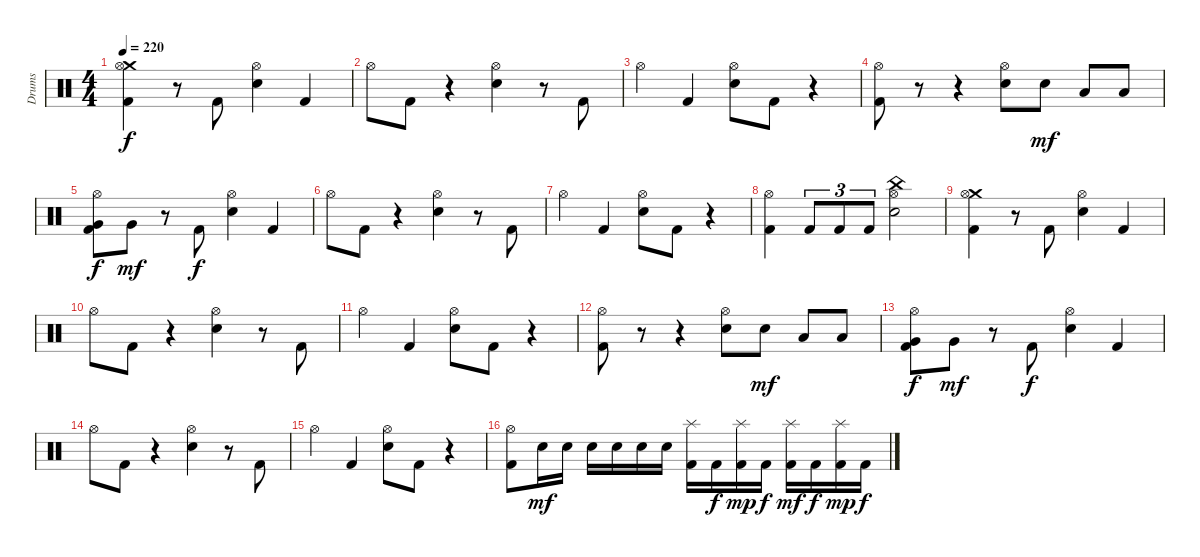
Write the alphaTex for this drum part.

\bracketExtendMode groupsimilarinstruments
\otherSystemsTrackNameOrientation horizontal
\track ("Drumkit" "Drums") {instrument percussion}
\staff {score}
\articulation defaults
\ts (4 4)
\tempo 220
\clef neutral
\ks c
("Crash medium (hit)" "Hi-Hat (open)" "Kick (hit) 2").4{dy f beam Down} r.8{beam Down} "Kick (hit) 2".8{beam Up} ("Hi-Hat (open)" "Snare (hit) 2").4{beam Down} "Kick (hit) 2".4{beam Up} |
"Hi-Hat (open)".8{beam Down} "Kick (hit) 2".8{beam Down} r.4{beam Down} ("Hi-Hat (open)" "Snare (hit) 2").4{beam Down} r.8{beam Down} "Kick (hit) 2".8{beam Up} |
"Hi-Hat (open)".4{beam Down} "Kick (hit) 2".4{beam Up} ("Hi-Hat (open)" "Snare (hit) 2").8{beam Down} "Kick (hit) 2".8{beam Down} r.4{beam Down} |
("Hi-Hat (open)" "Kick (hit) 2").8{beam Down} r.8{beam Down} r.4{beam Down} ("Hi-Hat (open)" "Snare (hit) 2").8{beam Down} "Snare (hit) 2".8{dy mf beam Down} "Low Tom (hit)".8{beam Up} "Low Tom (hit)".8{beam Up} |
("Hi-Hat (open)" "Very Low Tom (hit)" "Kick (hit) 2").8{dy f beam Down} "Very Low Tom (hit)".8{dy mf beam Down} r.8{beam Down} "Kick (hit) 2".8{dy f beam Up} ("Hi-Hat (open)" "Snare (hit) 2").4{beam Down} "Kick (hit) 2".4{beam Up} |
"Hi-Hat (open)".8{beam Down} "Kick (hit) 2".8{beam Down} r.4{beam Down} ("Hi-Hat (open)" "Snare (hit) 2").4{beam Down} r.8{beam Down} "Kick (hit) 2".8{beam Up} |
"Hi-Hat (open)".4{beam Down} "Kick (hit) 2".4{beam Up} ("Hi-Hat (open)" "Snare (hit) 2").8{beam Down} "Kick (hit) 2".8{beam Down} r.4{beam Down} |
("Hi-Hat (open)" "Kick (hit) 2").4{beam Down} "Kick (hit) 2".8{tu (3 2) beam Up} "Kick (hit) 2".8{tu (3 2) beam Up} "Kick (hit) 2".8{tu (3 2) beam Up} ("China (hit)" "Hi-Hat (open)" "Snare (hit) 2").2{beam Down} |
("Crash medium (hit)" "Hi-Hat (open)" "Kick (hit) 2").4{beam Down} r.8{beam Down} "Kick (hit) 2".8{beam Up} ("Hi-Hat (open)" "Snare (hit) 2").4{beam Down} "Kick (hit) 2".4{beam Up} |
"Hi-Hat (open)".8{beam Down} "Kick (hit) 2".8{beam Down} r.4{beam Down} ("Hi-Hat (open)" "Snare (hit) 2").4{beam Down} r.8{beam Down} "Kick (hit) 2".8{beam Up} |
"Hi-Hat (open)".4{beam Down} "Kick (hit) 2".4{beam Up} ("Hi-Hat (open)" "Snare (hit) 2").8{beam Down} "Kick (hit) 2".8{beam Down} r.4{beam Down} |
("Hi-Hat (open)" "Kick (hit) 2").8{beam Down} r.8{beam Down} r.4{beam Down} ("Hi-Hat (open)" "Snare (hit) 2").8{beam Down} "Snare (hit) 2".8{dy mf beam Down} "Low Tom (hit)".8{beam Up} "Low Tom (hit)".8{beam Up} |
("Hi-Hat (open)" "Very Low Tom (hit)" "Kick (hit) 2").8{dy f beam Down} "Very Low Tom (hit)".8{dy mf beam Down} r.8{beam Down} "Kick (hit) 2".8{dy f beam Up} ("Hi-Hat (open)" "Snare (hit) 2").4{beam Down} "Kick (hit) 2".4{beam Up} |
"Hi-Hat (open)".8{beam Down} "Kick (hit) 2".8{beam Down} r.4{beam Down} ("Hi-Hat (open)" "Snare (hit) 2").4{beam Down} r.8{beam Down} "Kick (hit) 2".8{beam Up} |
"Hi-Hat (open)".4{beam Down} "Kick (hit) 2".4{beam Up} ("Hi-Hat (open)" "Snare (hit) 2").8{beam Down} "Kick (hit) 2".8{beam Down} r.4{beam Down} |
("Hi-Hat (open)" "Kick (hit) 2").8{beam Down} "Snare (hit) 2".16{dy mf beam Down} "Snare (hit) 2".16{beam Down} "Snare (hit) 2".16{beam Down} "Snare (hit) 2".16{beam Down} "Snare (hit) 2".16{beam Down} "Snare (hit) 2".16{beam Down} ("Splash (hit)" "Kick (hit) 2").16{beam Down} "Kick (hit) 2".16{dy f beam Down} ("Splash (hit)" "Kick (hit) 2").16{dy mp beam Down} "Kick (hit) 2".16{dy f beam Down} ("Splash (hit)" "Kick (hit) 2").16{dy mf beam Down} "Kick (hit) 2".16{dy f beam Down} ("Splash (hit)" "Kick (hit) 2").16{dy mp beam Down} "Kick (hit) 2".16{dy f beam Down}
